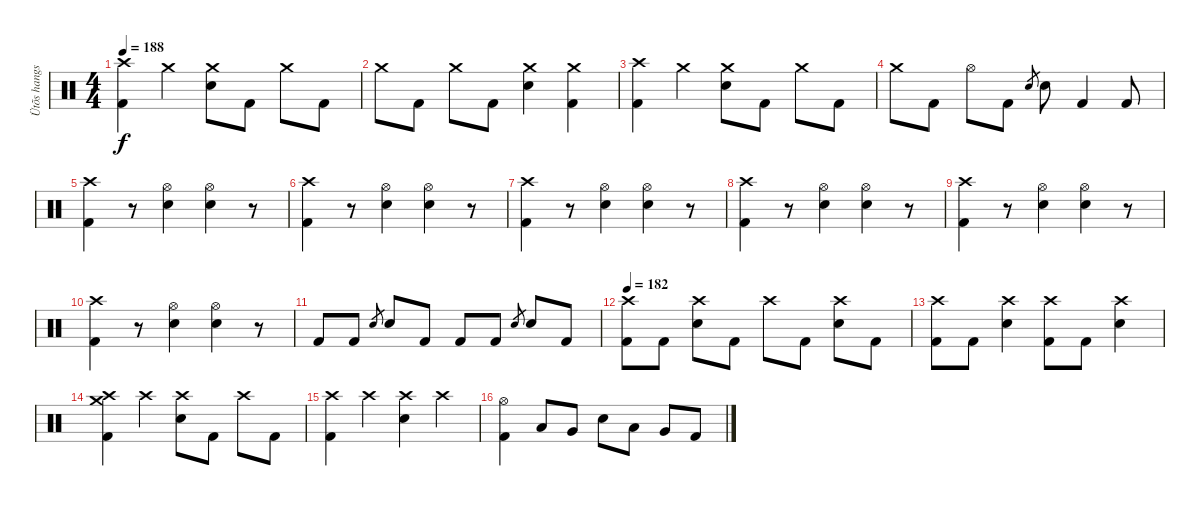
\track ("Ütõs hangszer" "Ütõs hangs") {instrument percussion}
\staff {score}
\articulation defaults
\ts (4 4)
\tempo 188
\clef neutral
\ks c
("Crash high (hit)" "Kick (hit) 2").4{dy f} "Crash medium (hit)".4 ("Crash medium (hit)" "Electric Snare (hit)").8 "Kick (hit) 2".8 "Crash medium (hit)".8 "Kick (hit) 2".8 |
"Crash medium (hit)".8 "Kick (hit) 2".8 "Crash medium (hit)".8 "Kick (hit) 2".8 ("Crash medium (hit)" "Electric Snare (hit)").4 ("Crash medium (hit)" "Kick (hit) 2").4 |
("Crash high (hit)" "Kick (hit) 2").4 "Crash medium (hit)".4 ("Crash medium (hit)" "Electric Snare (hit)").8 "Kick (hit) 2".8 "Crash medium (hit)".8 "Kick (hit) 2".8 |
"Crash medium (hit)".8 "Kick (hit) 2".8 "Hi-Hat (open)".8 "Kick (hit) 2".8 "Electric Snare (hit)".8{gr} "Electric Snare (hit)".8 "Kick (hit) 2".4 "Kick (hit) 2".8 |
("Crash high (hit)" "Kick (hit) 2").4 r.8 ("Hi-Hat (open)" "Electric Snare (hit)").4 ("Hi-Hat (open)" "Electric Snare (hit)").4 r.8 |
("Crash high (hit)" "Kick (hit) 2").4 r.8 ("Hi-Hat (open)" "Electric Snare (hit)").4 ("Hi-Hat (open)" "Electric Snare (hit)").4 r.8 |
("Crash high (hit)" "Kick (hit) 2").4 r.8 ("Hi-Hat (open)" "Electric Snare (hit)").4 ("Hi-Hat (open)" "Electric Snare (hit)").4 r.8 |
("Crash high (hit)" "Kick (hit) 2").4 r.8 ("Hi-Hat (open)" "Electric Snare (hit)").4 ("Hi-Hat (open)" "Electric Snare (hit)").4 r.8 |
("Crash high (hit)" "Kick (hit) 2").4 r.8 ("Hi-Hat (open)" "Electric Snare (hit)").4 ("Hi-Hat (open)" "Electric Snare (hit)").4 r.8 |
("Crash high (hit)" "Kick (hit) 2").4 r.8 ("Hi-Hat (open)" "Electric Snare (hit)").4 ("Hi-Hat (open)" "Electric Snare (hit)").4 r.8 |
"Kick (hit) 2".8 "Kick (hit) 2".8 "Electric Snare (hit)".8{gr} "Electric Snare (hit)".8 "Kick (hit) 2".8 "Kick (hit) 2".8 "Kick (hit) 2".8 "Electric Snare (hit)".8{gr} "Electric Snare (hit)".8 "Kick (hit) 2".8 |
\tempo 182
("Crash high (hit)" "Kick (hit) 2").8 "Kick (hit) 2".8 ("Crash high (hit)" "Electric Snare (hit)").8 "Kick (hit) 2".8 "Crash high (hit)".8 "Kick (hit) 2".8 ("Crash high (hit)" "Electric Snare (hit)").8 "Kick (hit) 2".8 |
("Crash high (hit)" "Kick (hit) 2").8 "Kick (hit) 2".8 ("Crash high (hit)" "Electric Snare (hit)").4 ("Crash high (hit)" "Kick (hit) 2").8 "Kick (hit) 2".8 ("Crash high (hit)" "Electric Snare (hit)").4 |
("Crash high (hit)" "Crash medium (hit)" "Kick (hit) 2").4 "Crash high (hit)".4 ("Crash high (hit)" "Electric Snare (hit)").8 "Kick (hit) 2".8 "Crash high (hit)".8 "Kick (hit) 2".8 |
("Crash high (hit)" "Kick (hit) 2").4 "Crash high (hit)".4 ("Crash high (hit)" "Electric Snare (hit)").4 "Crash high (hit)".4 |
("Hi-Hat (open)" "Kick (hit) 2").4 "Low Tom (hit)".8 "Very Low Tom (hit)".8 "Electric Snare (hit)".8 "Low Tom (hit)".8 "Very Low Tom (hit)".8 "Kick (hit) 2".8
